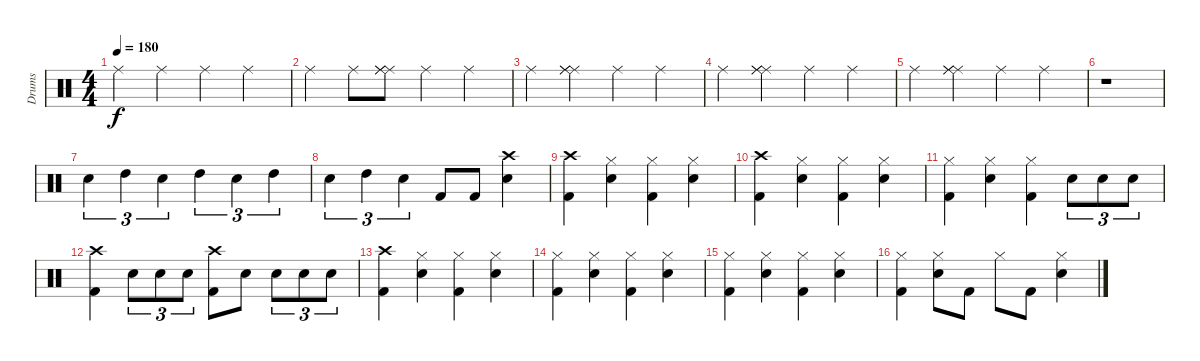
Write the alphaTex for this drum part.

\track ("Drums" "Drums") {instrument percussion}
\staff {score}
\articulation defaults
\ts (4 4)
\tempo 180
\clef neutral
\ks c "Ride (middle)".4{dy f} "Ride (middle)".4 "Ride (middle)".4 "Ride (middle)".4
|
"Ride (middle)".4 "Ride (middle)".8 ("Ride (middle)" "Ride (middle)" "Ride (middle)").8 "Ride (middle)".4 "Ride (middle)".4 |
"Ride (middle)".4 ("Ride (middle)" "Ride (middle)" "Ride (middle)").4 "Ride (middle)".4 "Ride (middle)".4 |
"Ride (middle)".4 ("Ride (middle)" "Ride (middle)" "Ride (middle)").4 "Ride (middle)".4 "Ride (middle)".4 |
"Ride (middle)".4 ("Ride (middle)" "Ride (middle)" "Ride (middle)").4 "Ride (middle)".4 "Ride (middle)".4 |
r.1 |
"Snare (hit) 2".4{tu (3 2)} "High Tom (hit)".4{tu (3 2)} "Snare (hit) 2".4{tu (3 2)} "High Tom (hit)".4{tu (3 2)} "Snare (hit) 2".4{tu (3 2)} "High Tom (hit)".4{tu (3 2)} |
"Snare (hit) 2".4{tu (3 2)} "High Tom (hit)".4{tu (3 2)} "Snare (hit) 2".4{tu (3 2)} "Kick (hit) 2".8 "Kick (hit) 2".8 ("Crash high (hit)" "Snare (hit) 2").4 |
("Crash high (hit)" "Kick (hit) 2").4 ("Hi-Hat (closed)" "Snare (hit) 2").4 ("Hi-Hat (closed)" "Kick (hit) 2").4 ("Hi-Hat (closed)" "Snare (hit) 2").4 |
("Crash high (hit)" "Kick (hit) 2").4 ("Hi-Hat (closed)" "Snare (hit) 2").4 ("Hi-Hat (closed)" "Kick (hit) 2").4 ("Hi-Hat (closed)" "Snare (hit) 2").4 |
("Hi-Hat (closed)" "Kick (hit) 2").4 ("Hi-Hat (closed)" "Snare (hit) 2").4 ("Hi-Hat (closed)" "Kick (hit) 2").4 "Snare (hit) 2".8{tu (3 2)} "Snare (hit) 2".8{tu (3 2)} "Snare (hit) 2".8{tu (3 2)} |
("Crash high (hit)" "Kick (hit) 2").4 "Snare (hit) 2".8{tu (3 2)} "Snare (hit) 2".8{tu (3 2)} "Snare (hit) 2".8{tu (3 2)} ("Crash high (hit)" "Kick (hit) 2").8 "Snare (hit) 2".8 "Snare (hit) 2".8{tu (3 2)} "Snare (hit) 2".8{tu (3 2)} "Snare (hit) 2".8{tu (3 2)} |
("Crash high (hit)" "Kick (hit) 2").4 ("Hi-Hat (closed)" "Snare (hit) 2").4 ("Hi-Hat (closed)" "Kick (hit) 2").4 ("Hi-Hat (closed)" "Snare (hit) 2").4 |
("Hi-Hat (closed)" "Kick (hit) 2").4 ("Hi-Hat (closed)" "Snare (hit) 2").4 ("Hi-Hat (closed)" "Kick (hit) 2").4 ("Hi-Hat (closed)" "Snare (hit) 2").4 |
("Hi-Hat (closed)" "Kick (hit) 2").4 ("Hi-Hat (closed)" "Snare (hit) 2").4 ("Hi-Hat (closed)" "Kick (hit) 2").4 ("Hi-Hat (closed)" "Snare (hit) 2").4 |
("Hi-Hat (closed)" "Kick (hit) 2").4 ("Hi-Hat (closed)" "Snare (hit) 2").8 "Kick (hit) 2".8 "Hi-Hat (closed)".8 "Kick (hit) 2".8 ("Hi-Hat (closed)" "Snare (hit) 2").4
